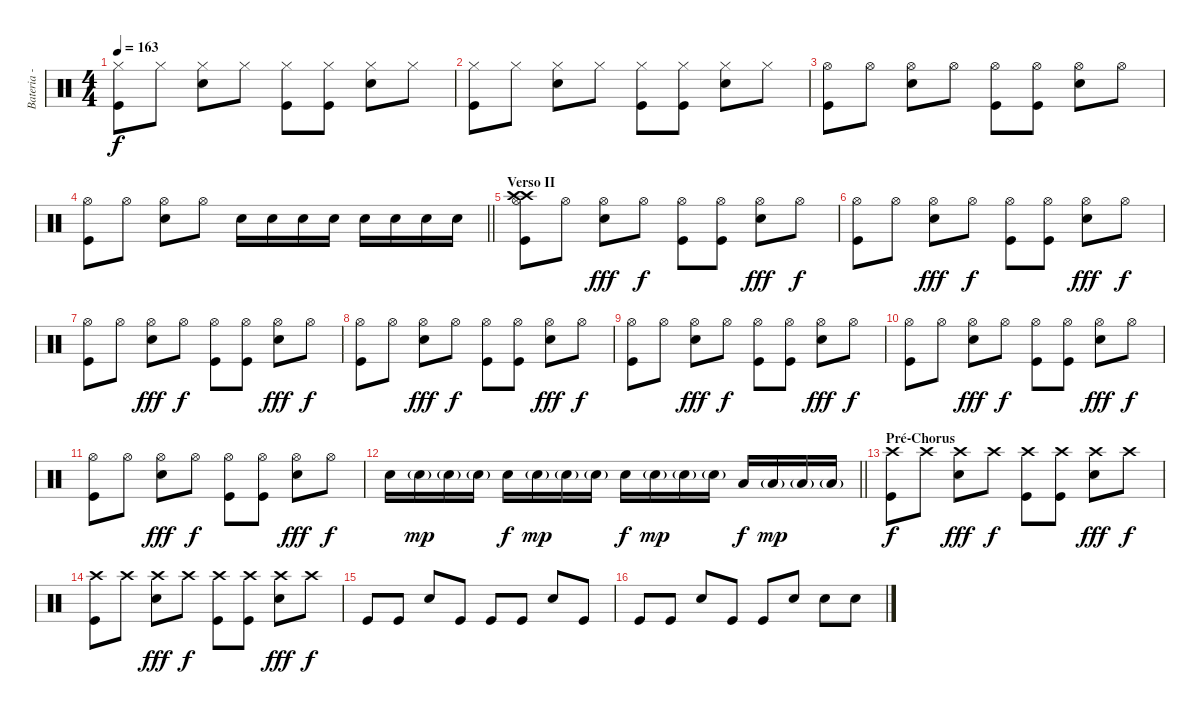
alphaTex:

\track ("Bateria - Larzon " "Bateria - ") {instrument percussion}
\staff {score}
\articulation defaults
\ts (4 4)
\tempo 163
\clef neutral
\ks c
("Kick (hit)" "Hi-Hat (closed)").8{dy f} "Hi-Hat (closed)".8 ("Electric Snare (hit)" "Hi-Hat (closed)").8 "Hi-Hat (closed)".8 ("Kick (hit)" "Hi-Hat (closed)").8 ("Kick (hit)" "Hi-Hat (closed)").8 ("Electric Snare (hit)" "Hi-Hat (closed)").8 "Hi-Hat (closed)".8 |
("Kick (hit)" "Hi-Hat (closed)").8 "Hi-Hat (closed)".8 ("Electric Snare (hit)" "Hi-Hat (closed)").8 "Hi-Hat (closed)".8 ("Kick (hit)" "Hi-Hat (closed)").8 ("Kick (hit)" "Hi-Hat (closed)").8 ("Electric Snare (hit)" "Hi-Hat (closed)").8 "Hi-Hat (closed)".8 |
("Kick (hit)" "Hi-Hat (open)").8 "Hi-Hat (open)".8 ("Electric Snare (hit)" "Hi-Hat (open)").8 "Hi-Hat (open)".8 ("Kick (hit)" "Hi-Hat (open)").8 ("Kick (hit)" "Hi-Hat (open)").8 ("Electric Snare (hit)" "Hi-Hat (open)").8 "Hi-Hat (open)".8 |
\barLineRight lightlight
("Kick (hit)" "Hi-Hat (open)").8 "Hi-Hat (open)".8 ("Electric Snare (hit)" "Hi-Hat (open)").8 "Hi-Hat (open)".8 "Electric Snare (hit)".16 "Electric Snare (hit)".16 "Electric Snare (hit)".16 "Electric Snare (hit)".16 "Electric Snare (hit)".16 "Electric Snare (hit)".16 "Electric Snare (hit)".16 "Electric Snare (hit)".16 |
\section ("" "Verso II")
("Kick (hit)" "Hi-Hat (open)" "Crash high (hit)" "Crash high (hit)").8 "Hi-Hat (open)".8 ("Electric Snare (hit)" "Hi-Hat (open)").8{dy fff} "Hi-Hat (open)".8{dy f} ("Kick (hit)" "Hi-Hat (open)").8 ("Kick (hit)" "Hi-Hat (open)").8 ("Electric Snare (hit)" "Hi-Hat (open)").8{dy fff} "Hi-Hat (open)".8{dy f} |
("Kick (hit)" "Hi-Hat (open)").8 "Hi-Hat (open)".8 ("Electric Snare (hit)" "Hi-Hat (open)").8{dy fff} "Hi-Hat (open)".8{dy f} ("Kick (hit)" "Hi-Hat (open)").8 ("Kick (hit)" "Hi-Hat (open)").8 ("Electric Snare (hit)" "Hi-Hat (open)").8{dy fff} "Hi-Hat (open)".8{dy f} |
("Kick (hit)" "Hi-Hat (open)").8 "Hi-Hat (open)".8 ("Electric Snare (hit)" "Hi-Hat (open)").8{dy fff} "Hi-Hat (open)".8{dy f} ("Kick (hit)" "Hi-Hat (open)").8 ("Kick (hit)" "Hi-Hat (open)").8 ("Electric Snare (hit)" "Hi-Hat (open)").8{dy fff} "Hi-Hat (open)".8{dy f} |
("Kick (hit)" "Hi-Hat (open)").8 "Hi-Hat (open)".8 ("Electric Snare (hit)" "Hi-Hat (open)").8{dy fff} "Hi-Hat (open)".8{dy f} ("Kick (hit)" "Hi-Hat (open)").8 ("Kick (hit)" "Hi-Hat (open)").8 ("Electric Snare (hit)" "Hi-Hat (open)").8{dy fff} "Hi-Hat (open)".8{dy f} |
("Kick (hit)" "Hi-Hat (open)").8 "Hi-Hat (open)".8 ("Electric Snare (hit)" "Hi-Hat (open)").8{dy fff} "Hi-Hat (open)".8{dy f} ("Kick (hit)" "Hi-Hat (open)").8 ("Kick (hit)" "Hi-Hat (open)").8 ("Electric Snare (hit)" "Hi-Hat (open)").8{dy fff} "Hi-Hat (open)".8{dy f} |
("Kick (hit)" "Hi-Hat (open)").8 "Hi-Hat (open)".8 ("Electric Snare (hit)" "Hi-Hat (open)").8{dy fff} "Hi-Hat (open)".8{dy f} ("Kick (hit)" "Hi-Hat (open)").8 ("Kick (hit)" "Hi-Hat (open)").8 ("Electric Snare (hit)" "Hi-Hat (open)").8{dy fff} "Hi-Hat (open)".8{dy f} |
("Kick (hit)" "Hi-Hat (open)").8 "Hi-Hat (open)".8 ("Electric Snare (hit)" "Hi-Hat (open)").8{dy fff} "Hi-Hat (open)".8{dy f} ("Kick (hit)" "Hi-Hat (open)").8 ("Kick (hit)" "Hi-Hat (open)").8 ("Electric Snare (hit)" "Hi-Hat (open)").8{dy fff} "Hi-Hat (open)".8{dy f} |
\barLineRight lightlight "Electric Snare (hit)".16 "Electric Snare (hit)"{g}.16{dy mp} "Electric Snare (hit)"{g}.16 "Electric Snare (hit)"{g}.16 "Electric Snare (hit)".16{dy f} "Electric Snare (hit)"{g}.16{dy mp} "Electric Snare (hit)"{g}.16 "Electric Snare (hit)"{g}.16 "Electric Snare (hit)".16{dy f} "Electric Snare (hit)"{g}.16{dy mp} "Electric Snare (hit)"{g}.16 "Electric Snare (hit)"{g}.16 "Low Tom (hit)".16{dy f} "Low Tom (hit)"{g}.16{dy mp} "Low Tom (hit)"{g}.16 "Low Tom (hit)"{g}.16
|
\section ("" "Pré-Chorus")
("Kick (hit)" "Crash high (hit)").8{dy f} "Crash high (hit)".8 ("Electric Snare (hit)" "Crash high (hit)").8{dy fff} "Crash high (hit)".8{dy f} ("Kick (hit)" "Crash high (hit)").8 ("Kick (hit)" "Crash high (hit)").8 ("Electric Snare (hit)" "Crash high (hit)").8{dy fff} "Crash high (hit)".8{dy f} |
("Kick (hit)" "Crash high (hit)").8 "Crash high (hit)".8 ("Electric Snare (hit)" "Crash high (hit)").8{dy fff} "Crash high (hit)".8{dy f} ("Kick (hit)" "Crash high (hit)").8 ("Kick (hit)" "Crash high (hit)").8 ("Electric Snare (hit)" "Crash high (hit)").8{dy fff} "Crash high (hit)".8{dy f} |
"Kick (hit)".8 "Kick (hit)".8 "Electric Snare (hit)".8 "Kick (hit)".8 "Kick (hit)".8 "Kick (hit)".8 "Electric Snare (hit)".8 "Kick (hit)".8 |
"Kick (hit)".8 "Kick (hit)".8 "Electric Snare (hit)".8 "Kick (hit)".8 "Kick (hit)".8 "Electric Snare (hit)".8 "Electric Snare (hit)".8 "Electric Snare (hit)".8
